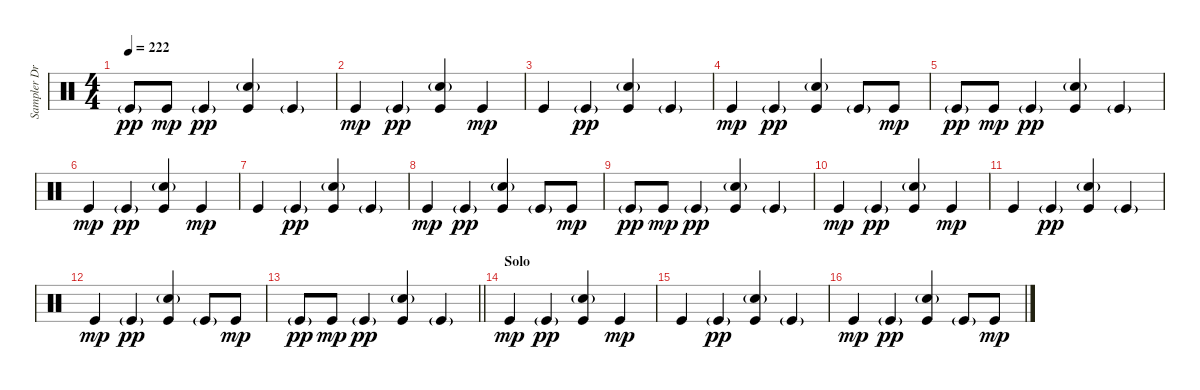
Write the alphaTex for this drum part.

\track ("Sampler Drums 1" "Sampler Dr") {instrument percussion}
\staff {score}
\articulation defaults
\ts (4 4)
\tempo 222
\clef neutral
\ks c "Kick (hit)"{g}.8{dy pp} "Kick (hit)".8{dy mp} "Kick (hit)"{g}.4{dy pp}
("Kick (hit)" "Snare (hit) 2"{g}).4 "Kick (hit)"{g}.4 |
"Kick (hit)".4{dy mp} "Kick (hit)"{g}.4{dy pp} ("Kick (hit)" "Snare (hit) 2"{g}).4 "Kick (hit)".4{dy mp} |
"Kick (hit)".4 "Kick (hit)"{g}.4{dy pp} ("Kick (hit)" "Snare (hit) 2"{g}).4 "Kick (hit)"{g}.4 |
"Kick (hit)".4{dy mp} "Kick (hit)"{g}.4{dy pp} ("Kick (hit)" "Snare (hit) 2"{g}).4 "Kick (hit)"{g}.8 "Kick (hit)".8{dy mp} |
"Kick (hit)"{g}.8{dy pp} "Kick (hit)".8{dy mp} "Kick (hit)"{g}.4{dy pp} ("Kick (hit)" "Snare (hit) 2"{g}).4 "Kick (hit)"{g}.4 |
"Kick (hit)".4{dy mp} "Kick (hit)"{g}.4{dy pp} ("Kick (hit)" "Snare (hit) 2"{g}).4 "Kick (hit)".4{dy mp} |
"Kick (hit)".4 "Kick (hit)"{g}.4{dy pp} ("Kick (hit)" "Snare (hit) 2"{g}).4 "Kick (hit)"{g}.4 |
"Kick (hit)".4{dy mp} "Kick (hit)"{g}.4{dy pp} ("Kick (hit)" "Snare (hit) 2"{g}).4 "Kick (hit)"{g}.8 "Kick (hit)".8{dy mp} |
"Kick (hit)"{g}.8{dy pp} "Kick (hit)".8{dy mp} "Kick (hit)"{g}.4{dy pp} ("Kick (hit)" "Snare (hit) 2"{g}).4 "Kick (hit)"{g}.4 |
"Kick (hit)".4{dy mp} "Kick (hit)"{g}.4{dy pp} ("Kick (hit)" "Snare (hit) 2"{g}).4 "Kick (hit)".4{dy mp} |
"Kick (hit)".4 "Kick (hit)"{g}.4{dy pp} ("Kick (hit)" "Snare (hit) 2"{g}).4 "Kick (hit)"{g}.4 |
"Kick (hit)".4{dy mp} "Kick (hit)"{g}.4{dy pp} ("Kick (hit)" "Snare (hit) 2"{g}).4 "Kick (hit)"{g}.8 "Kick (hit)".8{dy mp} |
\barLineRight lightlight "Kick (hit)"{g}.8{dy pp} "Kick (hit)".8{dy mp} "Kick (hit)"{g}.4{dy pp}
("Kick (hit)" "Snare (hit) 2"{g}).4 "Kick (hit)"{g}.4 |
\section ("" "Solo")
"Kick (hit)".4{dy mp volume 16} "Kick (hit)"{g}.4{dy pp} ("Kick (hit)" "Snare (hit) 2"{g}).4 "Kick (hit)".4{dy mp} |
"Kick (hit)".4 "Kick (hit)"{g}.4{dy pp} ("Kick (hit)" "Snare (hit) 2"{g}).4 "Kick (hit)"{g}.4 |
"Kick (hit)".4{dy mp} "Kick (hit)"{g}.4{dy pp} ("Kick (hit)" "Snare (hit) 2"{g}).4 "Kick (hit)"{g}.8 "Kick (hit)".8{dy mp}
